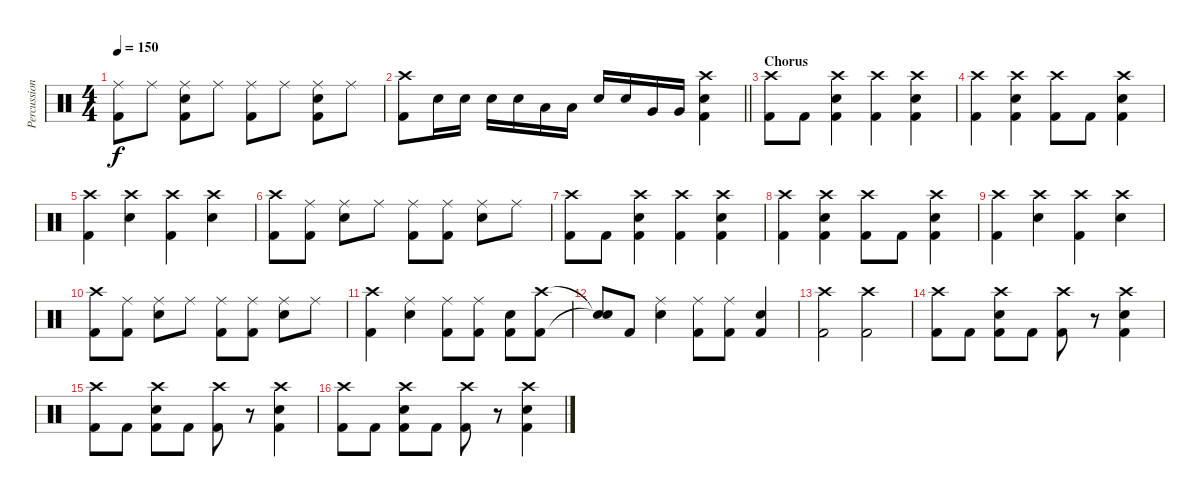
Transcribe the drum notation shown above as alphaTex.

\track ("Percussion" "Percussion") {instrument percussion}
\staff {score}
\articulation defaults
\ts (4 4)
\tempo 150
\clef neutral
\ks c
("Ride (middle)" "Kick (hit) 2").8{dy f} "Ride (middle)".8 ("Ride (middle)" "Electric Snare (hit)" "Kick (hit) 2").8 "Ride (middle)".8 ("Ride (middle)" "Kick (hit) 2").8 "Ride (middle)".8 ("Ride (middle)" "Electric Snare (hit)" "Kick (hit) 2").8 "Ride (middle)".8 |
\barLineRight lightlight
("Crash high (hit)" "Kick (hit) 2").8 "Electric Snare (hit)".16 "Electric Snare (hit)".16 "Electric Snare (hit)".16 "Electric Snare (hit)".16 "Low Tom (hit)".16 "Low Tom (hit)".16 "Electric Snare (hit)".16 "Electric Snare (hit)".16 "Very Low Tom (hit)".16 "Very Low Tom (hit)".16 ("Crash high (hit)" "Electric Snare (hit)" "Kick (hit) 2").4 |
\section ("" "Chorus")
("Crash high (hit)" "Kick (hit) 2").8 "Kick (hit) 2".8 ("Crash high (hit)" "Electric Snare (hit)" "Kick (hit) 2").4 ("Crash high (hit)" "Kick (hit) 2").4 ("Crash high (hit)" "Electric Snare (hit)" "Kick (hit) 2").4 |
("Crash high (hit)" "Kick (hit) 2").4 ("Crash high (hit)" "Electric Snare (hit)" "Kick (hit) 2").4 ("Crash high (hit)" "Kick (hit) 2").8 "Kick (hit) 2".8 ("Crash high (hit)" "Electric Snare (hit)" "Kick (hit) 2").4 |
("Crash high (hit)" "Kick (hit) 2").4 ("Crash high (hit)" "Electric Snare (hit)").4 ("Crash high (hit)" "Kick (hit) 2").4 ("Crash high (hit)" "Electric Snare (hit)").4 |
("Crash high (hit)" "Kick (hit) 2").8 ("Ride (middle)" "Kick (hit) 2").8 ("Ride (middle)" "Electric Snare (hit)").8 "Ride (middle)".8 ("Ride (middle)" "Kick (hit) 2").8 ("Ride (middle)" "Kick (hit) 2").8 ("Ride (middle)" "Electric Snare (hit)").8 "Ride (middle)".8 |
("Crash high (hit)" "Kick (hit) 2").8 "Kick (hit) 2".8 ("Crash high (hit)" "Electric Snare (hit)" "Kick (hit) 2").4 ("Crash high (hit)" "Kick (hit) 2").4 ("Crash high (hit)" "Electric Snare (hit)" "Kick (hit) 2").4 |
("Crash high (hit)" "Kick (hit) 2").4 ("Crash high (hit)" "Electric Snare (hit)" "Kick (hit) 2").4 ("Crash high (hit)" "Kick (hit) 2").8 "Kick (hit) 2".8 ("Crash high (hit)" "Electric Snare (hit)" "Kick (hit) 2").4 |
("Crash high (hit)" "Kick (hit) 2").4 ("Crash high (hit)" "Electric Snare (hit)").4 ("Crash high (hit)" "Kick (hit) 2").4 ("Crash high (hit)" "Electric Snare (hit)").4 |
("Crash high (hit)" "Kick (hit) 2").8 ("Ride (middle)" "Kick (hit) 2").8 ("Ride (middle)" "Electric Snare (hit)").8 "Ride (middle)".8 ("Ride (middle)" "Kick (hit) 2").8 ("Ride (middle)" "Kick (hit) 2").8 ("Ride (middle)" "Electric Snare (hit)").8 "Ride (middle)".8 |
("Crash high (hit)" "Kick (hit) 2").4 ("Ride (middle)" "Electric Snare (hit)").4 ("Ride (middle)" "Kick (hit) 2").8 ("Ride (middle)" "Kick (hit) 2").8 ("Electric Snare (hit)" "Kick (hit) 2").8 ("Crash high (hit)" "Kick (hit) 2").8 |
("Snare (hit)"{t} "Snare (hit)"{t}).8 "Kick (hit) 2".8 ("Ride (middle)" "Electric Snare (hit)").4 ("Ride (middle)" "Kick (hit) 2").8 ("Ride (middle)" "Kick (hit) 2").8 ("Electric Snare (hit)" "Kick (hit) 2").4 |
("Crash high (hit)" "Kick (hit) 2").2 ("Crash high (hit)" "Kick (hit) 2").2 |
("Crash high (hit)" "Kick (hit) 2").8 "Kick (hit) 2".8 ("Crash high (hit)" "Electric Snare (hit)" "Kick (hit) 2").8 "Kick (hit) 2".8 ("Crash high (hit)" "Kick (hit) 2").8 r.8 ("Crash high (hit)" "Electric Snare (hit)" "Kick (hit) 2").4 |
("Crash high (hit)" "Kick (hit) 2").8 "Kick (hit) 2".8 ("Crash high (hit)" "Electric Snare (hit)" "Kick (hit) 2").8 "Kick (hit) 2".8 ("Crash high (hit)" "Kick (hit) 2").8 r.8 ("Crash high (hit)" "Electric Snare (hit)" "Kick (hit) 2").4 |
("Crash high (hit)" "Kick (hit) 2").8 "Kick (hit) 2".8 ("Crash high (hit)" "Electric Snare (hit)" "Kick (hit) 2").8 "Kick (hit) 2".8 ("Crash high (hit)" "Kick (hit) 2").8 r.8 ("Crash high (hit)" "Electric Snare (hit)" "Kick (hit) 2").4
